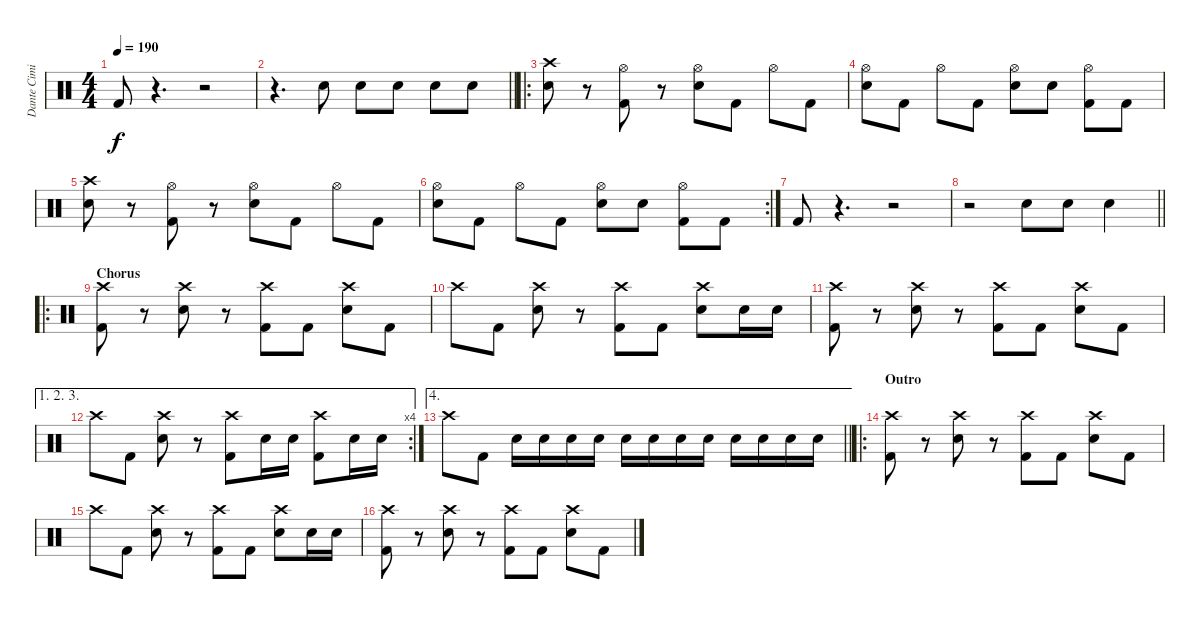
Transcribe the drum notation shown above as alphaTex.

\track ("Dante Cimino" "Dante Cimi") {instrument percussion}
\staff {score}
\articulation defaults
\ts (4 4)
\tempo 190
\clef neutral
\ks c "Kick (hit) 2".8{dy f}
r.4{d} r.2 |
\barLineRight lightlight
r.4{d} "Electric Snare (hit)".8 "Electric Snare (hit)".8 "Electric Snare (hit)".8 "Electric Snare (hit)".8 "Electric Snare (hit)".8 |
\ro
("Crash high (hit)" "Electric Snare (hit)").8 r.8 ("Hi-Hat (open)" "Kick (hit) 2").8 r.8 ("Hi-Hat (open)" "Electric Snare (hit)").8 "Kick (hit) 2".8 "Hi-Hat (open)".8 "Kick (hit) 2".8 |
("Hi-Hat (open)" "Electric Snare (hit)").8 "Kick (hit) 2".8 "Hi-Hat (open)".8 "Kick (hit) 2".8 ("Hi-Hat (open)" "Electric Snare (hit)").8 "Electric Snare (hit)".8 ("Hi-Hat (open)" "Kick (hit) 2").8 "Kick (hit) 2".8 |
("Crash high (hit)" "Electric Snare (hit)").8 r.8 ("Hi-Hat (open)" "Kick (hit) 2").8 r.8 ("Hi-Hat (open)" "Electric Snare (hit)").8 "Kick (hit) 2".8 "Hi-Hat (open)".8 "Kick (hit) 2".8 |
\rc 2
("Hi-Hat (open)" "Electric Snare (hit)").8 "Kick (hit) 2".8 "Hi-Hat (open)".8 "Kick (hit) 2".8 ("Hi-Hat (open)" "Electric Snare (hit)").8 "Electric Snare (hit)".8 ("Hi-Hat (open)" "Kick (hit) 2").8 "Kick (hit) 2".8 |
"Kick (hit) 2".8 r.4{d} r.2 |
\barLineRight lightlight
r.2 "Electric Snare (hit)".8 "Electric Snare (hit)".8 "Electric Snare (hit)".4 |
\ro
\section ("" "Chorus")
("Crash high (hit)" "Kick (hit) 2").8 r.8 ("Crash high (hit)" "Electric Snare (hit)").8 r.8 ("Crash high (hit)" "Kick (hit) 2").8 "Kick (hit) 2".8 ("Crash high (hit)" "Electric Snare (hit)").8 "Kick (hit) 2".8 |
"Crash high (hit)".8 "Kick (hit) 2".8 ("Crash high (hit)" "Electric Snare (hit)").8 r.8 ("Crash high (hit)" "Kick (hit) 2").8 "Kick (hit) 2".8 ("Crash high (hit)" "Electric Snare (hit)").8 "Electric Snare (hit)".16 "Electric Snare (hit)".16 |
("Crash high (hit)" "Kick (hit) 2").8 r.8 ("Crash high (hit)" "Electric Snare (hit)").8 r.8 ("Crash high (hit)" "Kick (hit) 2").8 "Kick (hit) 2".8 ("Crash high (hit)" "Electric Snare (hit)").8 "Kick (hit) 2".8 |
\ae (1 2 3)
\rc 4 "Crash high (hit)".8 "Kick (hit) 2".8
("Crash high (hit)" "Electric Snare (hit)").8 r.8 ("Crash high (hit)" "Kick (hit) 2").8 "Electric Snare (hit)".16 "Electric Snare (hit)".16 ("Crash high (hit)" "Kick (hit) 2").8 "Electric Snare (hit)".16 "Electric Snare (hit)".16 |
\ae 4
\barLineRight lightlight "Crash high (hit)".8 "Kick (hit) 2".8 "Electric Snare (hit)".16 "Electric Snare (hit)".16 "Electric Snare (hit)".16 "Electric Snare (hit)".16 "Electric Snare (hit)".16 "Electric Snare (hit)".16 "Electric Snare (hit)".16 "Electric Snare (hit)".16 "Electric Snare (hit)".16 "Electric Snare (hit)".16 "Electric Snare (hit)".16 "Electric Snare (hit)".16
|
\ro
\section ("" "Outro")
("Crash high (hit)" "Kick (hit) 2").8 r.8 ("Crash high (hit)" "Electric Snare (hit)").8 r.8 ("Crash high (hit)" "Kick (hit) 2").8 "Kick (hit) 2".8 ("Crash high (hit)" "Electric Snare (hit)").8 "Kick (hit) 2".8 |
"Crash high (hit)".8 "Kick (hit) 2".8 ("Crash high (hit)" "Electric Snare (hit)").8 r.8 ("Crash high (hit)" "Kick (hit) 2").8 "Kick (hit) 2".8 ("Crash high (hit)" "Electric Snare (hit)").8 "Electric Snare (hit)".16 "Electric Snare (hit)".16 |
("Crash high (hit)" "Kick (hit) 2").8 r.8 ("Crash high (hit)" "Electric Snare (hit)").8 r.8 ("Crash high (hit)" "Kick (hit) 2").8 "Kick (hit) 2".8 ("Crash high (hit)" "Electric Snare (hit)").8 "Kick (hit) 2".8
